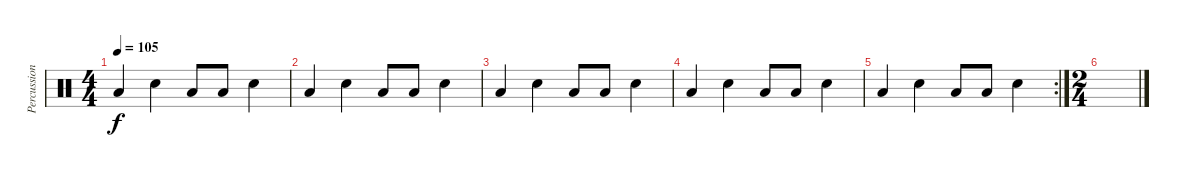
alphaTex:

\track ("Percussions" "Percussion") {instrument percussion}
\staff {score}
\articulation defaults
\ts (4 4)
\tempo 105
\clef neutral
\ks c "Low Floor Tom (hit)".4{dy f} "Electric Snare (hit)".4 "Low Floor Tom (hit)".8 "Low Floor Tom (hit)".8 "Electric Snare (hit)".4
|
"Low Floor Tom (hit)".4 "Electric Snare (hit)".4 "Low Floor Tom (hit)".8 "Low Floor Tom (hit)".8 "Electric Snare (hit)".4 |
"Low Floor Tom (hit)".4 "Electric Snare (hit)".4 "Low Floor Tom (hit)".8 "Low Floor Tom (hit)".8 "Electric Snare (hit)".4 |
"Low Floor Tom (hit)".4 "Electric Snare (hit)".4 "Low Floor Tom (hit)".8 "Low Floor Tom (hit)".8 "Electric Snare (hit)".4 |
\rc 2 "Low Floor Tom (hit)".4 "Electric Snare (hit)".4 "Low Floor Tom (hit)".8 "Low Floor Tom (hit)".8 "Electric Snare (hit)".4
|
\ts (2 4)
